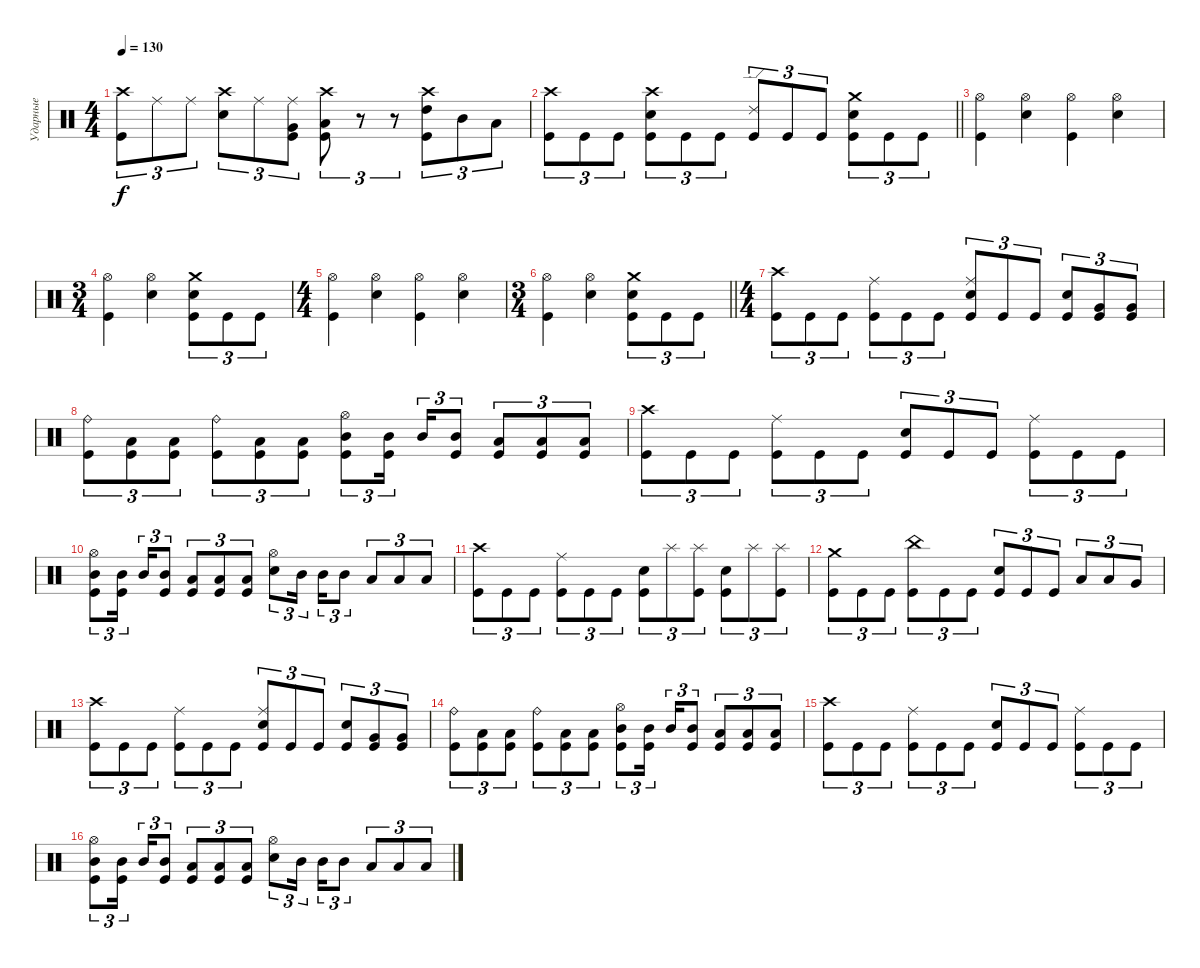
\track ("Ударные" "Ударные") {instrument percussion}
\staff {score}
\articulation defaults
\ts (4 4)
\tempo 130
\clef neutral
\ks c
("Crash high (hit)" "Kick (hit)").8{tu (3 2) dy f} "Ride (middle)".8{tu (3 2)} "Ride (middle)".8{tu (3 2)} ("Crash high (hit)" "Electric Snare (hit)").8{tu (3 2)} "Ride (middle)".8{tu (3 2)} ("Very Low Tom (hit)" "Ride (middle)" "Kick (hit)").8{tu (3 2)} ("Low Floor Tom (hit)" "Crash high (hit)" "Kick (hit)").8{tu (3 2)} r.8{tu (3 2)} r.8{tu (3 2)} ("Kick (hit)" "Crash high (hit)" "High Tom (hit)").8{tu (3 2)} "Mid Tom (hit)".8{tu (3 2)} "Low Tom (hit)".8{tu (3 2)} |
\barLineRight lightlight
("Kick (hit)" "Crash high (hit)").8{tu (3 2)} "Kick (hit)".8{tu (3 2)} "Kick (hit)".8{tu (3 2)} ("Crash high (hit)" "Kick (hit)" "Electric Snare (hit)").8{tu (3 2)} "Kick (hit)".8{tu (3 2)} "Kick (hit)".8{tu (3 2)} ("Ride (edge) 2" "Kick (hit)").8{tu (3 2)} "Kick (hit)".8{tu (3 2)} "Kick (hit)".8{tu (3 2)} ("Crash medium (hit)" "Kick (hit)" "Electric Snare (hit)").8{tu (3 2)} "Kick (hit)".8{tu (3 2)} "Kick (hit)".8{tu (3 2)} |
\section ("" " ")
("Hi-Hat (open)" "Kick (hit)").4 ("Hi-Hat (open)" "Electric Snare (hit)").4 ("Hi-Hat (open)" "Kick (hit)").4 ("Hi-Hat (open)" "Electric Snare (hit)").4 |
\ts (3 4)
("Hi-Hat (open)" "Kick (hit)").4 ("Hi-Hat (open)" "Electric Snare (hit)").4 ("Crash medium (hit)" "Kick (hit)" "Electric Snare (hit)").8{tu (3 2)} "Kick (hit)".8{tu (3 2)} "Kick (hit)".8{tu (3 2)} |
\ts (4 4)
("Hi-Hat (open)" "Kick (hit)").4 ("Hi-Hat (open)" "Electric Snare (hit)").4 ("Hi-Hat (open)" "Kick (hit)").4 ("Hi-Hat (open)" "Electric Snare (hit)").4 |
\ts (3 4)
\barLineRight lightlight
("Hi-Hat (open)" "Kick (hit)").4 ("Hi-Hat (open)" "Electric Snare (hit)").4 ("Crash medium (hit)" "Kick (hit)" "Electric Snare (hit)").8{tu (3 2)} "Kick (hit)".8{tu (3 2)} "Kick (hit)".8{tu (3 2)} |
\ts (4 4)
\section ("" " ")
("Crash high (hit)" "Kick (hit)").8{tu (3 2)} "Kick (hit)".8{tu (3 2)} "Kick (hit)".8{tu (3 2)} ("Ride (middle)" "Kick (hit)").8{tu (3 2)} "Kick (hit)".8{tu (3 2)} "Kick (hit)".8{tu (3 2)} ("Ride (middle)" "Electric Snare (hit)" "Kick (hit)").8{tu (3 2)} "Kick (hit)".8{tu (3 2)} "Kick (hit)".8{tu (3 2)} ("Electric Snare (hit)" "Kick (hit)").8{tu (3 2)} ("Very Low Tom (hit)" "Kick (hit)").8{tu (3 2)} ("Very Low Tom (hit)" "Kick (hit)").8{tu (3 2)} |
("Ride (bell)" "Kick (hit)").8{tu (3 2)} ("Low Tom (hit)" "Kick (hit)").8{tu (3 2)} ("Low Tom (hit)" "Kick (hit)").8{tu (3 2)} ("Ride (bell)" "Kick (hit)").8{tu (3 2)} ("Low Floor Tom (hit)" "Kick (hit)").8{tu (3 2)} ("Low Floor Tom (hit)" "Kick (hit)").8{tu (3 2)} ("Hi-Hat (open)" "Mid Tom (hit)" "Kick (hit)").8{tu (3 2)} ("Mid Tom (hit)" "Kick (hit)").16{tu (3 2) beam splitsecondary} "Mid Tom (hit)".16{tu (3 2)} ("Mid Tom (hit)" "Kick (hit)").8{tu (3 2)} ("Low Tom (hit)" "Kick (hit)").8{tu (3 2)} ("Low Tom (hit)" "Kick (hit)").8{tu (3 2)} ("Low Tom (hit)" "Kick (hit)").8{tu (3 2)} |
("Crash high (hit)" "Kick (hit)").8{tu (3 2)} "Kick (hit)".8{tu (3 2)} "Kick (hit)".8{tu (3 2)} ("Ride (middle)" "Kick (hit)").8{tu (3 2)} "Kick (hit)".8{tu (3 2)} "Kick (hit)".8{tu (3 2)} ("Electric Snare (hit)" "Kick (hit)").8{tu (3 2)} "Kick (hit)".8{tu (3 2)} "Kick (hit)".8{tu (3 2)} ("Ride (middle)" "Kick (hit)").8{tu (3 2)} "Kick (hit)".8{tu (3 2)} "Kick (hit)".8{tu (3 2)} |
("Hi-Hat (open)" "Mid Tom (hit)" "Kick (hit)").8{tu (3 2)} ("Mid Tom (hit)" "Kick (hit)").16{tu (3 2) beam splitsecondary} "Mid Tom (hit)".16{tu (3 2)} ("Mid Tom (hit)" "Kick (hit)").8{tu (3 2)} ("Low Tom (hit)" "Kick (hit)").8{tu (3 2)} ("Low Tom (hit)" "Kick (hit)").8{tu (3 2)} ("Low Tom (hit)" "Kick (hit)").8{tu (3 2)} ("Hi-Hat (open)" "Electric Snare (hit)").8{tu (3 2)} "Mid Tom (hit)".16{tu (3 2) beam splitsecondary} "Mid Tom (hit)".16{tu (3 2)} "Mid Tom (hit)".8{tu (3 2)} "Low Tom (hit)".8{tu (3 2)} "Low Tom (hit)".8{tu (3 2)} "Low Tom (hit)".8{tu (3 2)} |
("Crash high (hit)" "Kick (hit)").8{tu (3 2)} "Kick (hit)".8{tu (3 2)} "Kick (hit)".8{tu (3 2)} ("Ride (middle)" "Kick (hit)").8{tu (3 2)} "Kick (hit)".8{tu (3 2)} "Kick (hit)".8{tu (3 2)} ("Electric Snare (hit)" "Kick (hit)").8{tu (3 2)} "Splash (hit)".8{tu (3 2)} ("Splash (hit)" "Kick (hit)").8{tu (3 2)} ("Electric Snare (hit)" "Kick (hit)").8{tu (3 2)} "Splash (hit)".8{tu (3 2)} ("Splash (hit)" "Kick (hit)").8{tu (3 2)} |
("Crash medium (hit)" "Kick (hit)").8{tu (3 2)} "Kick (hit)".8{tu (3 2)} "Kick (hit)".8{tu (3 2)} ("China (hit)" "Kick (hit)").8{tu (3 2)} "Kick (hit)".8{tu (3 2)} "Kick (hit)".8{tu (3 2)} ("Electric Snare (hit)" "Kick (hit)").8{tu (3 2)} "Kick (hit)".8{tu (3 2)} "Kick (hit)".8{tu (3 2)} "Low Tom (hit)".8{tu (3 2)} "Low Tom (hit)".8{tu (3 2)} "Very Low Tom (hit)".8{tu (3 2)} |
("Crash high (hit)" "Kick (hit)").8{tu (3 2)} "Kick (hit)".8{tu (3 2)} "Kick (hit)".8{tu (3 2)} ("Ride (middle)" "Kick (hit)").8{tu (3 2)} "Kick (hit)".8{tu (3 2)} "Kick (hit)".8{tu (3 2)} ("Ride (middle)" "Electric Snare (hit)" "Kick (hit)").8{tu (3 2)} "Kick (hit)".8{tu (3 2)} "Kick (hit)".8{tu (3 2)} ("Electric Snare (hit)" "Kick (hit)").8{tu (3 2)} ("Very Low Tom (hit)" "Kick (hit)").8{tu (3 2)} ("Very Low Tom (hit)" "Kick (hit)").8{tu (3 2)} |
("Ride (bell)" "Kick (hit)").8{tu (3 2)} ("Low Tom (hit)" "Kick (hit)").8{tu (3 2)} ("Low Tom (hit)" "Kick (hit)").8{tu (3 2)} ("Ride (bell)" "Kick (hit)").8{tu (3 2)} ("Low Floor Tom (hit)" "Kick (hit)").8{tu (3 2)} ("Low Floor Tom (hit)" "Kick (hit)").8{tu (3 2)} ("Hi-Hat (open)" "Mid Tom (hit)" "Kick (hit)").8{tu (3 2)} ("Mid Tom (hit)" "Kick (hit)").16{tu (3 2) beam splitsecondary} "Mid Tom (hit)".16{tu (3 2)} ("Mid Tom (hit)" "Kick (hit)").8{tu (3 2)} ("Low Tom (hit)" "Kick (hit)").8{tu (3 2)} ("Low Tom (hit)" "Kick (hit)").8{tu (3 2)} ("Low Tom (hit)" "Kick (hit)").8{tu (3 2)} |
("Crash high (hit)" "Kick (hit)").8{tu (3 2)} "Kick (hit)".8{tu (3 2)} "Kick (hit)".8{tu (3 2)} ("Ride (middle)" "Kick (hit)").8{tu (3 2)} "Kick (hit)".8{tu (3 2)} "Kick (hit)".8{tu (3 2)} ("Electric Snare (hit)" "Kick (hit)").8{tu (3 2)} "Kick (hit)".8{tu (3 2)} "Kick (hit)".8{tu (3 2)} ("Ride (middle)" "Kick (hit)").8{tu (3 2)} "Kick (hit)".8{tu (3 2)} "Kick (hit)".8{tu (3 2)} |
("Hi-Hat (open)" "Mid Tom (hit)" "Kick (hit)").8{tu (3 2)} ("Mid Tom (hit)" "Kick (hit)").16{tu (3 2) beam splitsecondary} "Mid Tom (hit)".16{tu (3 2)} ("Mid Tom (hit)" "Kick (hit)").8{tu (3 2)} ("Low Tom (hit)" "Kick (hit)").8{tu (3 2)} ("Low Tom (hit)" "Kick (hit)").8{tu (3 2)} ("Low Tom (hit)" "Kick (hit)").8{tu (3 2)} ("Hi-Hat (open)" "Electric Snare (hit)").8{tu (3 2)} "Mid Tom (hit)".16{tu (3 2) beam splitsecondary} "Mid Tom (hit)".16{tu (3 2)} "Mid Tom (hit)".8{tu (3 2)} "Low Tom (hit)".8{tu (3 2)} "Low Tom (hit)".8{tu (3 2)} "Low Tom (hit)".8{tu (3 2)}
